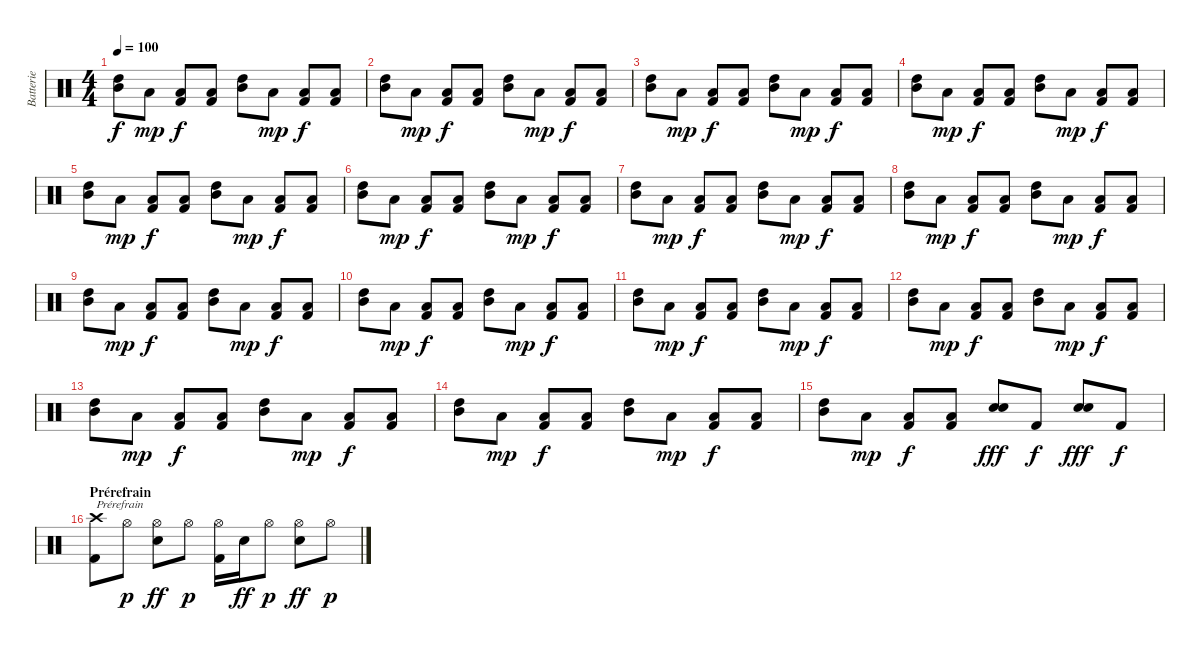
\track ("Batterie" "Batterie") {instrument percussion}
\staff {score}
\articulation defaults
\ts (4 4)
\tempo 100
\clef neutral
\ks c
("High Tom (hit)" "Mid Tom (hit)").8{dy f} "Low Tom (hit)".8{dy mp} ("Low Floor Tom (hit)" "Kick (hit) 2").8{dy f} ("Low Floor Tom (hit)" "Kick (hit) 2").8 ("High Tom (hit)" "Mid Tom (hit)").8 "Low Tom (hit)".8{dy mp} ("Low Floor Tom (hit)" "Kick (hit) 2").8{dy f} ("Low Floor Tom (hit)" "Kick (hit) 2").8 |
("High Tom (hit)" "Mid Tom (hit)").8 "Low Tom (hit)".8{dy mp} ("Low Floor Tom (hit)" "Kick (hit) 2").8{dy f} ("Low Floor Tom (hit)" "Kick (hit) 2").8 ("High Tom (hit)" "Mid Tom (hit)").8 "Low Tom (hit)".8{dy mp} ("Low Floor Tom (hit)" "Kick (hit) 2").8{dy f} ("Low Floor Tom (hit)" "Kick (hit) 2").8 |
("High Tom (hit)" "Mid Tom (hit)").8 "Low Tom (hit)".8{dy mp} ("Low Floor Tom (hit)" "Kick (hit) 2").8{dy f} ("Low Floor Tom (hit)" "Kick (hit) 2").8 ("High Tom (hit)" "Mid Tom (hit)").8 "Low Tom (hit)".8{dy mp} ("Low Floor Tom (hit)" "Kick (hit) 2").8{dy f} ("Low Floor Tom (hit)" "Kick (hit) 2").8 |
("High Tom (hit)" "Mid Tom (hit)").8 "Low Tom (hit)".8{dy mp} ("Low Floor Tom (hit)" "Kick (hit) 2").8{dy f} ("Low Floor Tom (hit)" "Kick (hit) 2").8 ("High Tom (hit)" "Mid Tom (hit)").8 "Low Tom (hit)".8{dy mp} ("Low Floor Tom (hit)" "Kick (hit) 2").8{dy f} ("Low Floor Tom (hit)" "Kick (hit) 2").8 |
("High Tom (hit)" "Mid Tom (hit)").8 "Low Tom (hit)".8{dy mp} ("Low Floor Tom (hit)" "Kick (hit) 2").8{dy f} ("Low Floor Tom (hit)" "Kick (hit) 2").8 ("High Tom (hit)" "Mid Tom (hit)").8 "Low Tom (hit)".8{dy mp} ("Low Floor Tom (hit)" "Kick (hit) 2").8{dy f} ("Low Floor Tom (hit)" "Kick (hit) 2").8 |
("High Tom (hit)" "Mid Tom (hit)").8 "Low Tom (hit)".8{dy mp} ("Low Floor Tom (hit)" "Kick (hit) 2").8{dy f} ("Low Floor Tom (hit)" "Kick (hit) 2").8 ("High Tom (hit)" "Mid Tom (hit)").8 "Low Tom (hit)".8{dy mp} ("Low Floor Tom (hit)" "Kick (hit) 2").8{dy f} ("Low Floor Tom (hit)" "Kick (hit) 2").8 |
("High Tom (hit)" "Mid Tom (hit)").8 "Low Tom (hit)".8{dy mp} ("Low Floor Tom (hit)" "Kick (hit) 2").8{dy f} ("Low Floor Tom (hit)" "Kick (hit) 2").8 ("High Tom (hit)" "Mid Tom (hit)").8 "Low Tom (hit)".8{dy mp} ("Low Floor Tom (hit)" "Kick (hit) 2").8{dy f} ("Low Floor Tom (hit)" "Kick (hit) 2").8 |
("High Tom (hit)" "Mid Tom (hit)").8 "Low Tom (hit)".8{dy mp} ("Low Floor Tom (hit)" "Kick (hit) 2").8{dy f} ("Low Floor Tom (hit)" "Kick (hit) 2").8 ("High Tom (hit)" "Mid Tom (hit)").8 "Low Tom (hit)".8{dy mp} ("Low Floor Tom (hit)" "Kick (hit) 2").8{dy f} ("Low Floor Tom (hit)" "Kick (hit) 2").8 |
("High Tom (hit)" "Mid Tom (hit)").8 "Low Tom (hit)".8{dy mp} ("Low Floor Tom (hit)" "Kick (hit) 2").8{dy f} ("Low Floor Tom (hit)" "Kick (hit) 2").8 ("High Tom (hit)" "Mid Tom (hit)").8 "Low Tom (hit)".8{dy mp} ("Low Floor Tom (hit)" "Kick (hit) 2").8{dy f} ("Low Floor Tom (hit)" "Kick (hit) 2").8 |
("High Tom (hit)" "Mid Tom (hit)").8 "Low Tom (hit)".8{dy mp} ("Low Floor Tom (hit)" "Kick (hit) 2").8{dy f} ("Low Floor Tom (hit)" "Kick (hit) 2").8 ("High Tom (hit)" "Mid Tom (hit)").8 "Low Tom (hit)".8{dy mp} ("Low Floor Tom (hit)" "Kick (hit) 2").8{dy f} ("Low Floor Tom (hit)" "Kick (hit) 2").8 |
("High Tom (hit)" "Mid Tom (hit)").8 "Low Tom (hit)".8{dy mp} ("Low Floor Tom (hit)" "Kick (hit) 2").8{dy f} ("Low Floor Tom (hit)" "Kick (hit) 2").8 ("High Tom (hit)" "Mid Tom (hit)").8 "Low Tom (hit)".8{dy mp} ("Low Floor Tom (hit)" "Kick (hit) 2").8{dy f} ("Low Floor Tom (hit)" "Kick (hit) 2").8 |
("High Tom (hit)" "Mid Tom (hit)").8 "Low Tom (hit)".8{dy mp} ("Low Floor Tom (hit)" "Kick (hit) 2").8{dy f} ("Low Floor Tom (hit)" "Kick (hit) 2").8 ("High Tom (hit)" "Mid Tom (hit)").8 "Low Tom (hit)".8{dy mp} ("Low Floor Tom (hit)" "Kick (hit) 2").8{dy f} ("Low Floor Tom (hit)" "Kick (hit) 2").8 |
("High Tom (hit)" "Mid Tom (hit)").8 "Low Tom (hit)".8{dy mp} ("Low Floor Tom (hit)" "Kick (hit) 2").8{dy f} ("Low Floor Tom (hit)" "Kick (hit) 2").8 ("High Tom (hit)" "Mid Tom (hit)").8 "Low Tom (hit)".8{dy mp} ("Low Floor Tom (hit)" "Kick (hit) 2").8{dy f} ("Low Floor Tom (hit)" "Kick (hit) 2").8 |
("High Tom (hit)" "Mid Tom (hit)").8 "Low Tom (hit)".8{dy mp} ("Low Floor Tom (hit)" "Kick (hit) 2").8{dy f} ("Low Floor Tom (hit)" "Kick (hit) 2").8 ("High Tom (hit)" "Mid Tom (hit)").8 "Low Tom (hit)".8{dy mp} ("Low Floor Tom (hit)" "Kick (hit) 2").8{dy f} ("Low Floor Tom (hit)" "Kick (hit) 2").8 |
("High Tom (hit)" "Mid Tom (hit)").8 "Low Tom (hit)".8{dy mp} ("Low Floor Tom (hit)" "Kick (hit) 2").8{dy f} ("Low Floor Tom (hit)" "Kick (hit) 2").8 ("Electric Snare (hit)" "Electric Snare (hit)").8{dy fff} "Kick (hit) 2".8{dy f} ("Electric Snare (hit)" "Electric Snare (hit)").8{dy fff} "Kick (hit) 2".8{dy f} |
\section ("" "Prérefrain")
("Crash high (hit)" "Kick (hit) 2").8{txt "Prérefrain"} "Hi-Hat (open)".8{dy p} ("Hi-Hat (open)" "Electric Snare (hit)").8{dy ff} "Hi-Hat (open)".8{dy p} ("Hi-Hat (open)" "Kick (hit) 2").16 "Electric Snare (hit)".16{dy ff} "Hi-Hat (open)".8{dy p} ("Hi-Hat (open)" "Electric Snare (hit)").8{dy ff} "Hi-Hat (open)".8{dy p}
